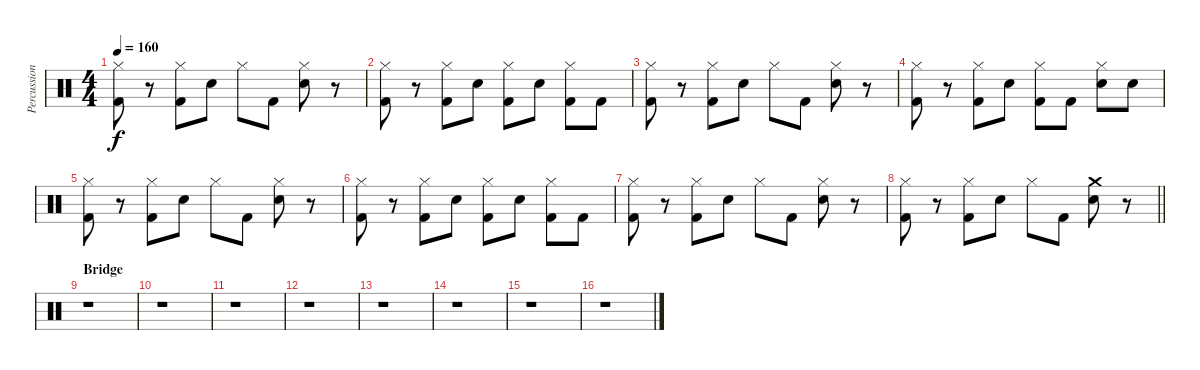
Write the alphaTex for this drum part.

\track ("Percussion" "Percussion") {instrument percussion}
\staff {score}
\articulation defaults
\ts (4 4)
\tempo 160
\clef neutral
\ks c
("Hi-Hat (closed)" "Kick (hit) 2").8{dy f} r.8 ("Hi-Hat (closed)" "Kick (hit) 2").8 "Snare (hit) 2".8 "Hi-Hat (closed)".8 "Kick (hit) 2".8 ("Hi-Hat (closed)" "Snare (hit) 2").8 r.8 |
("Hi-Hat (closed)" "Kick (hit) 2").8 r.8 ("Hi-Hat (closed)" "Kick (hit) 2").8 "Snare (hit) 2".8 ("Hi-Hat (closed)" "Kick (hit) 2").8 "Snare (hit) 2".8 ("Hi-Hat (closed)" "Kick (hit) 2").8 "Kick (hit) 2".8 |
("Hi-Hat (closed)" "Kick (hit) 2").8 r.8 ("Hi-Hat (closed)" "Kick (hit) 2").8 "Snare (hit) 2".8 "Hi-Hat (closed)".8 "Kick (hit) 2".8 ("Hi-Hat (closed)" "Snare (hit) 2").8 r.8 |
("Hi-Hat (closed)" "Kick (hit) 2").8 r.8 ("Hi-Hat (closed)" "Kick (hit) 2").8 "Snare (hit) 2".8 ("Hi-Hat (closed)" "Kick (hit) 2").8 "Kick (hit) 2".8 ("Hi-Hat (closed)" "Snare (hit) 2").8 "Snare (hit) 2".8 |
("Hi-Hat (closed)" "Kick (hit) 2").8 r.8 ("Hi-Hat (closed)" "Kick (hit) 2").8 "Snare (hit) 2".8 "Hi-Hat (closed)".8 "Kick (hit) 2".8 ("Hi-Hat (closed)" "Snare (hit) 2").8 r.8 |
("Hi-Hat (closed)" "Kick (hit) 2").8 r.8 ("Hi-Hat (closed)" "Kick (hit) 2").8 "Snare (hit) 2".8 ("Hi-Hat (closed)" "Kick (hit) 2").8 "Snare (hit) 2".8 ("Hi-Hat (closed)" "Kick (hit) 2").8 "Kick (hit) 2".8 |
("Hi-Hat (closed)" "Kick (hit) 2").8 r.8 ("Hi-Hat (closed)" "Kick (hit) 2").8 "Snare (hit) 2".8 "Hi-Hat (closed)".8 "Kick (hit) 2".8 ("Hi-Hat (closed)" "Snare (hit) 2").8 r.8 |
\barLineRight lightlight
("Hi-Hat (closed)" "Kick (hit) 2").8 r.8 ("Hi-Hat (closed)" "Kick (hit) 2").8 "Snare (hit) 2".8 "Hi-Hat (closed)".8 "Kick (hit) 2".8 ("Crash medium (hit)" "Snare (hit) 2").8 r.8 |
\section ("" "Bridge")
r.1 |
r.1 |
r.1 |
r.1 |
r.1 |
r.1 |
r.1 |
r.1
